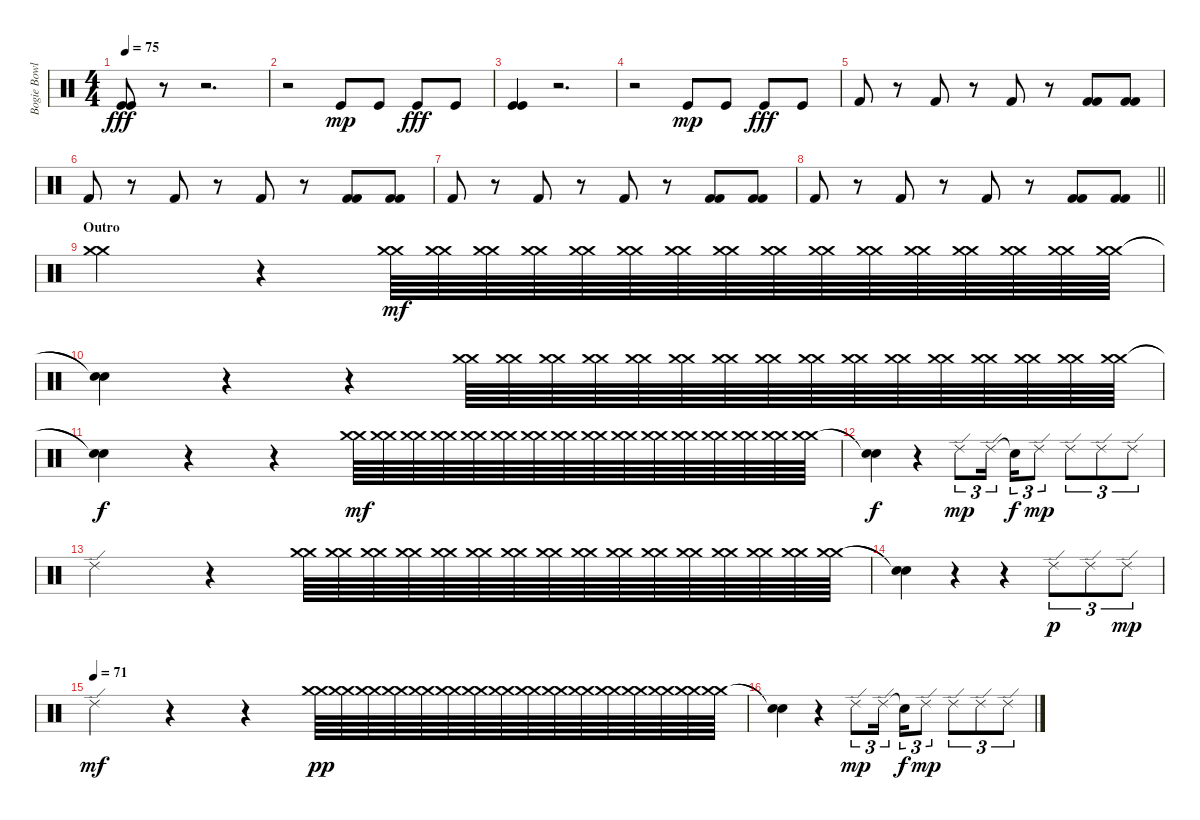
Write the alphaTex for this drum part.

\track ("Bogie Bowles" "Bogie Bowl") {instrument percussion}
\staff {score}
\articulation defaults
\ts (4 4)
\tempo 75
\clef neutral
\ks c
("Kick (hit)" "Kick (hit)").8{dy fff} r.8 r.2{d} |
r.2 "Kick (hit)".8{dy mp} "Kick (hit)".8 "Kick (hit)".8{dy fff} "Kick (hit)".8 |
("Kick (hit)" "Kick (hit)").4 r.2{d} |
r.2 "Kick (hit)".8{dy mp} "Kick (hit)".8 "Kick (hit)".8{dy fff} "Kick (hit)".8 |
"Kick (hit) 2".8 r.8 "Kick (hit) 2".8 r.8 "Kick (hit) 2".8 r.8 ("Kick (hit) 2" "Kick (hit) 2").8 ("Kick (hit) 2" "Kick (hit) 2").8 |
"Kick (hit) 2".8 r.8 "Kick (hit) 2".8 r.8 "Kick (hit) 2".8 r.8 ("Kick (hit) 2" "Kick (hit) 2").8 ("Kick (hit) 2" "Kick (hit) 2").8 |
"Kick (hit) 2".8 r.8 "Kick (hit) 2".8 r.8 "Kick (hit) 2".8 r.8 ("Kick (hit) 2" "Kick (hit) 2").8 ("Kick (hit) 2" "Kick (hit) 2").8 |
\barLineRight lightlight "Kick (hit) 2".8
r.8 "Kick (hit) 2".8 r.8 "Kick (hit) 2".8 r.8 ("Kick (hit) 2" "Kick (hit) 2").8 ("Kick (hit) 2" "Kick (hit) 2").8 |
\section ("" "Outro")
("Crash medium (hit)" "Crash medium (hit)").2 r.4{volume 3} ("Crash medium (hit)" "Crash medium (hit)").64{dy mf volume 16} ("Crash medium (hit)" "Crash medium (hit)").64 ("Crash medium (hit)" "Crash medium (hit)").64 ("Crash medium (hit)" "Crash medium (hit)").64 ("Crash medium (hit)" "Crash medium (hit)").64 ("Crash medium (hit)" "Crash medium (hit)").64 ("Crash medium (hit)" "Crash medium (hit)").64 ("Crash medium (hit)" "Crash medium (hit)").64 ("Crash medium (hit)" "Crash medium (hit)").64 ("Crash medium (hit)" "Crash medium (hit)").64 ("Crash medium (hit)" "Crash medium (hit)").64 ("Crash medium (hit)" "Crash medium (hit)").64 ("Crash medium (hit)" "Crash medium (hit)").64 ("Crash medium (hit)" "Crash medium (hit)").64 ("Crash medium (hit)" "Crash medium (hit)").64 ("Crash medium (hit)" "Crash medium (hit)").64 |
("Snare (hit)"{t} "Snare (hit)"{t}).4 r.4 r.4{volume 3} ("Crash medium (hit)" "Crash medium (hit)").64{volume 16} ("Crash medium (hit)" "Crash medium (hit)").64 ("Crash medium (hit)" "Crash medium (hit)").64 ("Crash medium (hit)" "Crash medium (hit)").64 ("Crash medium (hit)" "Crash medium (hit)").64 ("Crash medium (hit)" "Crash medium (hit)").64 ("Crash medium (hit)" "Crash medium (hit)").64 ("Crash medium (hit)" "Crash medium (hit)").64 ("Crash medium (hit)" "Crash medium (hit)").64 ("Crash medium (hit)" "Crash medium (hit)").64 ("Crash medium (hit)" "Crash medium (hit)").64 ("Crash medium (hit)" "Crash medium (hit)").64 ("Crash medium (hit)" "Crash medium (hit)").64 ("Crash medium (hit)" "Crash medium (hit)").64 ("Crash medium (hit)" "Crash medium (hit)").64 ("Crash medium (hit)" "Crash medium (hit)").64 |
("Snare (hit)"{t} "Snare (hit)"{t}).4{dy f} r.4 r.4{volume 3} ("Crash medium (hit)" "Crash medium (hit)").64{dy mf volume 16} ("Crash medium (hit)" "Crash medium (hit)").64 ("Crash medium (hit)" "Crash medium (hit)").64 ("Crash medium (hit)" "Crash medium (hit)").64 ("Crash medium (hit)" "Crash medium (hit)").64 ("Crash medium (hit)" "Crash medium (hit)").64 ("Crash medium (hit)" "Crash medium (hit)").64 ("Crash medium (hit)" "Crash medium (hit)").64 ("Crash medium (hit)" "Crash medium (hit)").64 ("Crash medium (hit)" "Crash medium (hit)").64 ("Crash medium (hit)" "Crash medium (hit)").64 ("Crash medium (hit)" "Crash medium (hit)").64 ("Crash medium (hit)" "Crash medium (hit)").64 ("Crash medium (hit)" "Crash medium (hit)").64 ("Crash medium (hit)" "Crash medium (hit)").64 ("Crash medium (hit)" "Crash medium (hit)").64 |
("Snare (hit)"{t} "Snare (hit)"{t}).4{dy f} r.4 "Ride (edge) 2".8{tu (3 2) dy mp} "Ride (edge) 2".16{tu (3 2) beam splitsecondary} "Snare (hit)"{t}.16{tu (3 2) dy f} "Ride (edge) 2".8{tu (3 2) dy mp} "Ride (edge) 2".8{tu (3 2)} "Ride (edge) 2".8{tu (3 2)} "Ride (edge) 2".8{tu (3 2)} |
"Ride (edge) 2".2 r.4{volume 3} ("Crash medium (hit)" "Crash medium (hit)").64{volume 16} ("Crash medium (hit)" "Crash medium (hit)").64 ("Crash medium (hit)" "Crash medium (hit)").64 ("Crash medium (hit)" "Crash medium (hit)").64 ("Crash medium (hit)" "Crash medium (hit)").64 ("Crash medium (hit)" "Crash medium (hit)").64 ("Crash medium (hit)" "Crash medium (hit)").64 ("Crash medium (hit)" "Crash medium (hit)").64 ("Crash medium (hit)" "Crash medium (hit)").64 ("Crash medium (hit)" "Crash medium (hit)").64 ("Crash medium (hit)" "Crash medium (hit)").64 ("Crash medium (hit)" "Crash medium (hit)").64 ("Crash medium (hit)" "Crash medium (hit)").64 ("Crash medium (hit)" "Crash medium (hit)").64 ("Crash medium (hit)" "Crash medium (hit)").64 ("Crash medium (hit)" "Crash medium (hit)").64 |
("Snare (hit)"{t} "Snare (hit)"{t}).4 r.4 r.4{volume 3} "Ride (edge) 2".8{tu (3 2) dy p} "Ride (edge) 2".8{tu (3 2)} "Ride (edge) 2".8{tu (3 2) dy mp} |
\tempo (71)
"Ride (edge) 2".4{dy mf} r.4 r.4{volume 3} ("Crash medium (hit)" "Crash medium (hit)").64{dy pp volume 16} ("Crash medium (hit)" "Crash medium (hit)").64 ("Crash medium (hit)" "Crash medium (hit)").64 ("Crash medium (hit)" "Crash medium (hit)").64 ("Crash medium (hit)" "Crash medium (hit)").64 ("Crash medium (hit)" "Crash medium (hit)").64 ("Crash medium (hit)" "Crash medium (hit)").64 ("Crash medium (hit)" "Crash medium (hit)").64 ("Crash medium (hit)" "Crash medium (hit)").64 ("Crash medium (hit)" "Crash medium (hit)").64 ("Crash medium (hit)" "Crash medium (hit)").64 ("Crash medium (hit)" "Crash medium (hit)").64 ("Crash medium (hit)" "Crash medium (hit)").64 ("Crash medium (hit)" "Crash medium (hit)").64 ("Crash medium (hit)" "Crash medium (hit)").64 ("Crash medium (hit)" "Crash medium (hit)").64 |
("Snare (hit)"{t} "Snare (hit)"{t}).4 r.4 "Ride (edge) 2".8{tu (3 2) dy mp} "Ride (edge) 2".16{tu (3 2) beam splitsecondary} "Snare (hit)"{t}.16{tu (3 2) dy f} "Ride (edge) 2".8{tu (3 2) dy mp} "Ride (edge) 2".8{tu (3 2)} "Ride (edge) 2".8{tu (3 2)} "Ride (edge) 2".8{tu (3 2)}
